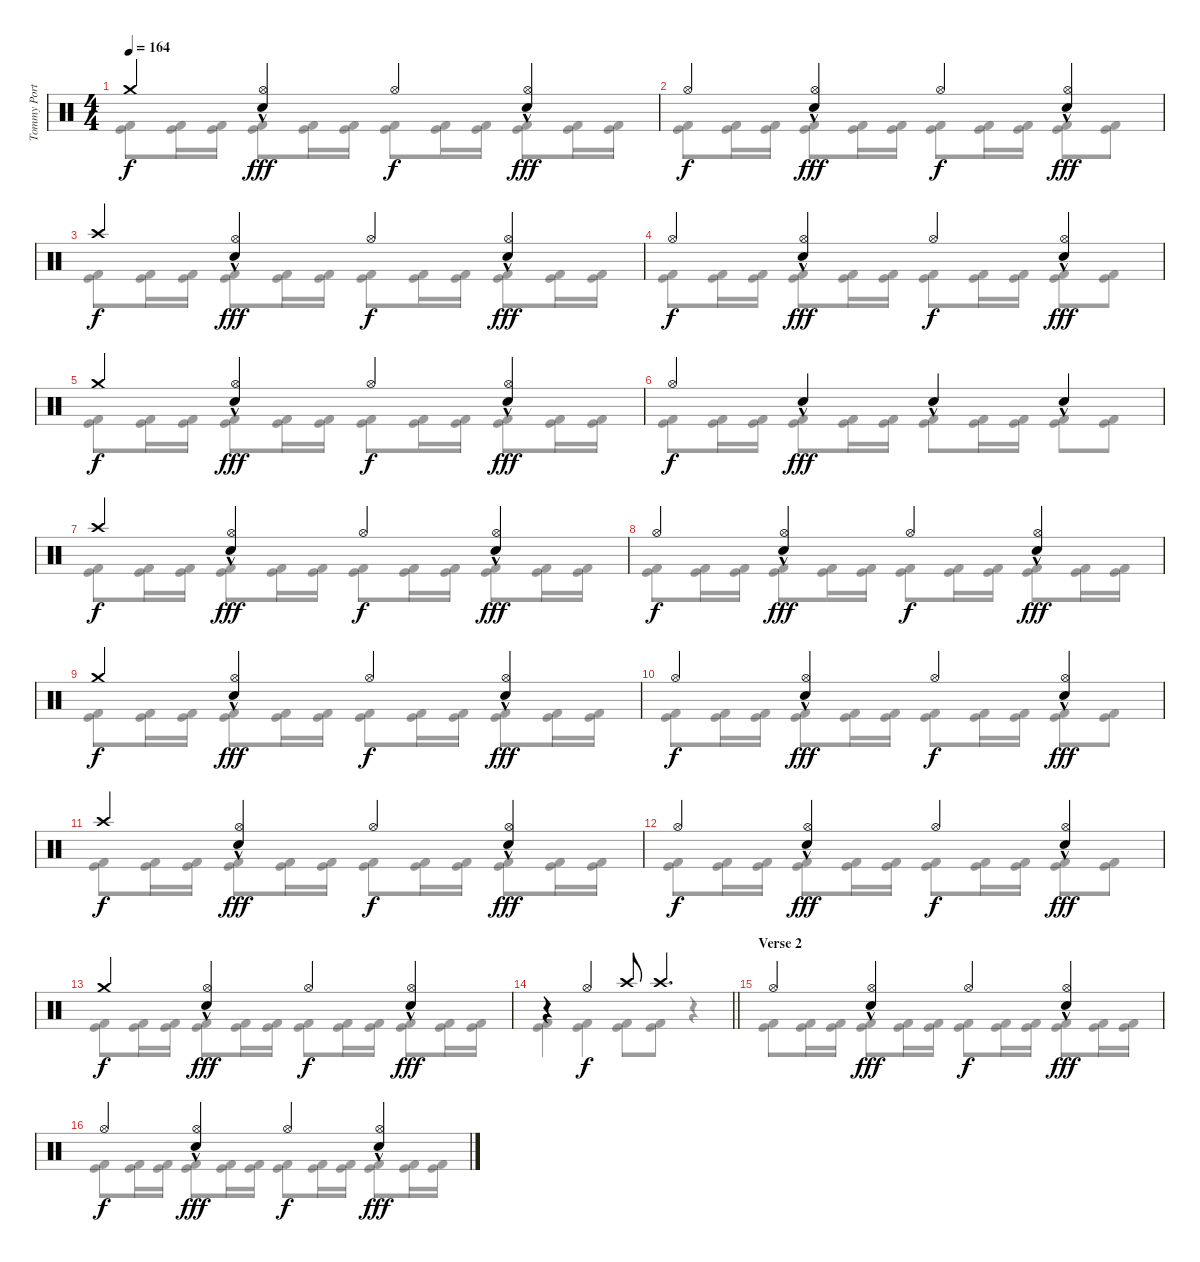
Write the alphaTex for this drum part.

\track ("Tommy Portimo" "Tommy Port") {instrument percussion}
\staff {score}
\articulation defaults
\voice
\ts (4 4)
\tempo 164
\clef neutral
\ks c "Crash medium (hit)".4{dy f}
("Snare (hit) 2"{hac} "Hi-Hat (open)").4{dy fff} "Hi-Hat (open)".4{dy f} ("Snare (hit) 2"{hac} "Hi-Hat (open)").4{dy fff} |
"Hi-Hat (open)".4{dy f} ("Snare (hit) 2"{hac} "Hi-Hat (open)").4{dy fff} "Hi-Hat (open)".4{dy f} ("Snare (hit) 2"{hac} "Hi-Hat (open)").4{dy fff} |
"Crash high (hit)".4{dy f} ("Snare (hit) 2"{hac} "Hi-Hat (open)").4{dy fff} "Hi-Hat (open)".4{dy f} ("Snare (hit) 2"{hac} "Hi-Hat (open)").4{dy fff} |
"Hi-Hat (open)".4{dy f} ("Snare (hit) 2"{hac} "Hi-Hat (open)").4{dy fff} "Hi-Hat (open)".4{dy f} ("Snare (hit) 2"{hac} "Hi-Hat (open)").4{dy fff} |
"Crash medium (hit)".4{dy f} ("Snare (hit) 2"{hac} "Hi-Hat (open)").4{dy fff} "Hi-Hat (open)".4{dy f} ("Snare (hit) 2"{hac} "Hi-Hat (open)").4{dy fff} |
"Hi-Hat (open)".4{dy f} "Snare (hit) 2"{hac}.4{dy fff} "Snare (hit) 2"{hac}.4 "Snare (hit) 2"{hac}.4 |
"Crash high (hit)".4{dy f} ("Snare (hit) 2"{hac} "Hi-Hat (open)").4{dy fff} "Hi-Hat (open)".4{dy f} ("Snare (hit) 2"{hac} "Hi-Hat (open)").4{dy fff} |
"Hi-Hat (open)".4{dy f} ("Snare (hit) 2"{hac} "Hi-Hat (open)").4{dy fff} "Hi-Hat (open)".4{dy f} ("Snare (hit) 2"{hac} "Hi-Hat (open)").4{dy fff} |
"Crash medium (hit)".4{dy f} ("Snare (hit) 2"{hac} "Hi-Hat (open)").4{dy fff} "Hi-Hat (open)".4{dy f} ("Snare (hit) 2"{hac} "Hi-Hat (open)").4{dy fff} |
"Hi-Hat (open)".4{dy f} ("Snare (hit) 2"{hac} "Hi-Hat (open)").4{dy fff} "Hi-Hat (open)".4{dy f} ("Snare (hit) 2"{hac} "Hi-Hat (open)").4{dy fff} |
"Crash high (hit)".4{dy f} ("Snare (hit) 2"{hac} "Hi-Hat (open)").4{dy fff} "Hi-Hat (open)".4{dy f} ("Snare (hit) 2"{hac} "Hi-Hat (open)").4{dy fff} |
"Hi-Hat (open)".4{dy f} ("Snare (hit) 2"{hac} "Hi-Hat (open)").4{dy fff} "Hi-Hat (open)".4{dy f} ("Snare (hit) 2"{hac} "Hi-Hat (open)").4{dy fff} |
"Crash medium (hit)".4{dy f} ("Snare (hit) 2"{hac} "Hi-Hat (open)").4{dy fff} "Hi-Hat (open)".4{dy f} ("Snare (hit) 2"{hac} "Hi-Hat (open)").4{dy fff} |
\barLineRight lightlight
r.4 "Hi-Hat (open)".4{dy f} "Crash high (hit)".8 "Crash high (hit)".4{d} |
\section ("" "Verse 2")
"Hi-Hat (open)".4 ("Snare (hit) 2"{hac} "Hi-Hat (open)").4{dy fff} "Hi-Hat (open)".4{dy f} ("Snare (hit) 2"{hac} "Hi-Hat (open)").4{dy fff} |
"Hi-Hat (open)".4{dy f} ("Snare (hit) 2"{hac} "Hi-Hat (open)").4{dy fff} "Hi-Hat (open)".4{dy f} ("Snare (hit) 2"{hac} "Hi-Hat (open)").4{dy fff}
\voice
\clef neutral
\ottava regular
\simile none
\ks c
("Kick (hit)" "Kick (hit) 2").8{dy f} ("Kick (hit)" "Kick (hit) 2").16 ("Kick (hit)" "Kick (hit) 2").16 ("Kick (hit)" "Kick (hit) 2").8 ("Kick (hit)" "Kick (hit) 2").16 ("Kick (hit)" "Kick (hit) 2").16 ("Kick (hit)" "Kick (hit) 2").8 ("Kick (hit)" "Kick (hit) 2").16 ("Kick (hit)" "Kick (hit) 2").16 ("Kick (hit)" "Kick (hit) 2").8 ("Kick (hit)" "Kick (hit) 2").16 ("Kick (hit)" "Kick (hit) 2").16 |
("Kick (hit)" "Kick (hit) 2").8 ("Kick (hit)" "Kick (hit) 2").16 ("Kick (hit)" "Kick (hit) 2").16 ("Kick (hit)" "Kick (hit) 2").8 ("Kick (hit)" "Kick (hit) 2").16 ("Kick (hit)" "Kick (hit) 2").16 ("Kick (hit)" "Kick (hit) 2").8 ("Kick (hit)" "Kick (hit) 2").16 ("Kick (hit)" "Kick (hit) 2").16 ("Kick (hit)" "Kick (hit) 2").8 ("Kick (hit)" "Kick (hit) 2").8 |
("Kick (hit)" "Kick (hit) 2").8 ("Kick (hit)" "Kick (hit) 2").16 ("Kick (hit)" "Kick (hit) 2").16 ("Kick (hit)" "Kick (hit) 2").8 ("Kick (hit)" "Kick (hit) 2").16 ("Kick (hit)" "Kick (hit) 2").16 ("Kick (hit)" "Kick (hit) 2").8 ("Kick (hit)" "Kick (hit) 2").16 ("Kick (hit)" "Kick (hit) 2").16 ("Kick (hit)" "Kick (hit) 2").8 ("Kick (hit)" "Kick (hit) 2").16 ("Kick (hit)" "Kick (hit) 2").16 |
("Kick (hit)" "Kick (hit) 2").8 ("Kick (hit)" "Kick (hit) 2").16 ("Kick (hit)" "Kick (hit) 2").16 ("Kick (hit)" "Kick (hit) 2").8 ("Kick (hit)" "Kick (hit) 2").16 ("Kick (hit)" "Kick (hit) 2").16 ("Kick (hit)" "Kick (hit) 2").8 ("Kick (hit)" "Kick (hit) 2").16 ("Kick (hit)" "Kick (hit) 2").16 ("Kick (hit)" "Kick (hit) 2").8 ("Kick (hit)" "Kick (hit) 2").8 |
("Kick (hit)" "Kick (hit) 2").8 ("Kick (hit)" "Kick (hit) 2").16 ("Kick (hit)" "Kick (hit) 2").16 ("Kick (hit)" "Kick (hit) 2").8 ("Kick (hit)" "Kick (hit) 2").16 ("Kick (hit)" "Kick (hit) 2").16 ("Kick (hit)" "Kick (hit) 2").8 ("Kick (hit)" "Kick (hit) 2").16 ("Kick (hit)" "Kick (hit) 2").16 ("Kick (hit)" "Kick (hit) 2").8 ("Kick (hit)" "Kick (hit) 2").16 ("Kick (hit)" "Kick (hit) 2").16 |
("Kick (hit)" "Kick (hit) 2").8 ("Kick (hit)" "Kick (hit) 2").16 ("Kick (hit)" "Kick (hit) 2").16 ("Kick (hit)" "Kick (hit) 2").8 ("Kick (hit)" "Kick (hit) 2").16 ("Kick (hit)" "Kick (hit) 2").16 ("Kick (hit)" "Kick (hit) 2").8 ("Kick (hit)" "Kick (hit) 2").16 ("Kick (hit)" "Kick (hit) 2").16 ("Kick (hit)" "Kick (hit) 2").8 ("Kick (hit)" "Kick (hit) 2").8 |
("Kick (hit)" "Kick (hit) 2").8 ("Kick (hit)" "Kick (hit) 2").16 ("Kick (hit)" "Kick (hit) 2").16 ("Kick (hit)" "Kick (hit) 2").8 ("Kick (hit)" "Kick (hit) 2").16 ("Kick (hit)" "Kick (hit) 2").16 ("Kick (hit)" "Kick (hit) 2").8 ("Kick (hit)" "Kick (hit) 2").16 ("Kick (hit)" "Kick (hit) 2").16 ("Kick (hit)" "Kick (hit) 2").8 ("Kick (hit)" "Kick (hit) 2").16 ("Kick (hit)" "Kick (hit) 2").16 |
("Kick (hit)" "Kick (hit) 2").8 ("Kick (hit)" "Kick (hit) 2").16 ("Kick (hit)" "Kick (hit) 2").16 ("Kick (hit)" "Kick (hit) 2").8 ("Kick (hit)" "Kick (hit) 2").16 ("Kick (hit)" "Kick (hit) 2").16 ("Kick (hit)" "Kick (hit) 2").8 ("Kick (hit)" "Kick (hit) 2").16 ("Kick (hit)" "Kick (hit) 2").16 ("Kick (hit)" "Kick (hit) 2").8 ("Kick (hit)" "Kick (hit) 2").16 ("Kick (hit)" "Kick (hit) 2").16 |
("Kick (hit)" "Kick (hit) 2").8 ("Kick (hit)" "Kick (hit) 2").16 ("Kick (hit)" "Kick (hit) 2").16 ("Kick (hit)" "Kick (hit) 2").8 ("Kick (hit)" "Kick (hit) 2").16 ("Kick (hit)" "Kick (hit) 2").16 ("Kick (hit)" "Kick (hit) 2").8 ("Kick (hit)" "Kick (hit) 2").16 ("Kick (hit)" "Kick (hit) 2").16 ("Kick (hit)" "Kick (hit) 2").8 ("Kick (hit)" "Kick (hit) 2").16 ("Kick (hit)" "Kick (hit) 2").16 |
("Kick (hit)" "Kick (hit) 2").8 ("Kick (hit)" "Kick (hit) 2").16 ("Kick (hit)" "Kick (hit) 2").16 ("Kick (hit)" "Kick (hit) 2").8 ("Kick (hit)" "Kick (hit) 2").16 ("Kick (hit)" "Kick (hit) 2").16 ("Kick (hit)" "Kick (hit) 2").8 ("Kick (hit)" "Kick (hit) 2").16 ("Kick (hit)" "Kick (hit) 2").16 ("Kick (hit)" "Kick (hit) 2").8 ("Kick (hit)" "Kick (hit) 2").8 |
("Kick (hit)" "Kick (hit) 2").8 ("Kick (hit)" "Kick (hit) 2").16 ("Kick (hit)" "Kick (hit) 2").16 ("Kick (hit)" "Kick (hit) 2").8 ("Kick (hit)" "Kick (hit) 2").16 ("Kick (hit)" "Kick (hit) 2").16 ("Kick (hit)" "Kick (hit) 2").8 ("Kick (hit)" "Kick (hit) 2").16 ("Kick (hit)" "Kick (hit) 2").16 ("Kick (hit)" "Kick (hit) 2").8 ("Kick (hit)" "Kick (hit) 2").16 ("Kick (hit)" "Kick (hit) 2").16 |
("Kick (hit)" "Kick (hit) 2").8 ("Kick (hit)" "Kick (hit) 2").16 ("Kick (hit)" "Kick (hit) 2").16 ("Kick (hit)" "Kick (hit) 2").8 ("Kick (hit)" "Kick (hit) 2").16 ("Kick (hit)" "Kick (hit) 2").16 ("Kick (hit)" "Kick (hit) 2").8 ("Kick (hit)" "Kick (hit) 2").16 ("Kick (hit)" "Kick (hit) 2").16 ("Kick (hit)" "Kick (hit) 2").8 ("Kick (hit)" "Kick (hit) 2").8 |
("Kick (hit)" "Kick (hit) 2").8 ("Kick (hit)" "Kick (hit) 2").16 ("Kick (hit)" "Kick (hit) 2").16 ("Kick (hit)" "Kick (hit) 2").8 ("Kick (hit)" "Kick (hit) 2").16 ("Kick (hit)" "Kick (hit) 2").16 ("Kick (hit)" "Kick (hit) 2").8 ("Kick (hit)" "Kick (hit) 2").16 ("Kick (hit)" "Kick (hit) 2").16 ("Kick (hit)" "Kick (hit) 2").8 ("Kick (hit)" "Kick (hit) 2").16 ("Kick (hit)" "Kick (hit) 2").16 |
\barLineRight lightlight
("Kick (hit)" "Kick (hit) 2").4 ("Kick (hit)" "Kick (hit) 2").4 ("Kick (hit)" "Kick (hit) 2").8 ("Kick (hit)" "Kick (hit) 2").8 r.4 |
("Kick (hit)" "Kick (hit) 2").8 ("Kick (hit)" "Kick (hit) 2").16 ("Kick (hit)" "Kick (hit) 2").16 ("Kick (hit)" "Kick (hit) 2").8 ("Kick (hit)" "Kick (hit) 2").16 ("Kick (hit)" "Kick (hit) 2").16 ("Kick (hit)" "Kick (hit) 2").8 ("Kick (hit)" "Kick (hit) 2").16 ("Kick (hit)" "Kick (hit) 2").16 ("Kick (hit)" "Kick (hit) 2").8 ("Kick (hit)" "Kick (hit) 2").16 ("Kick (hit)" "Kick (hit) 2").16 |
("Kick (hit)" "Kick (hit) 2").8 ("Kick (hit)" "Kick (hit) 2").16 ("Kick (hit)" "Kick (hit) 2").16 ("Kick (hit)" "Kick (hit) 2").8 ("Kick (hit)" "Kick (hit) 2").16 ("Kick (hit)" "Kick (hit) 2").16 ("Kick (hit)" "Kick (hit) 2").8 ("Kick (hit)" "Kick (hit) 2").16 ("Kick (hit)" "Kick (hit) 2").16 ("Kick (hit)" "Kick (hit) 2").8 ("Kick (hit)" "Kick (hit) 2").16 ("Kick (hit)" "Kick (hit) 2").16
